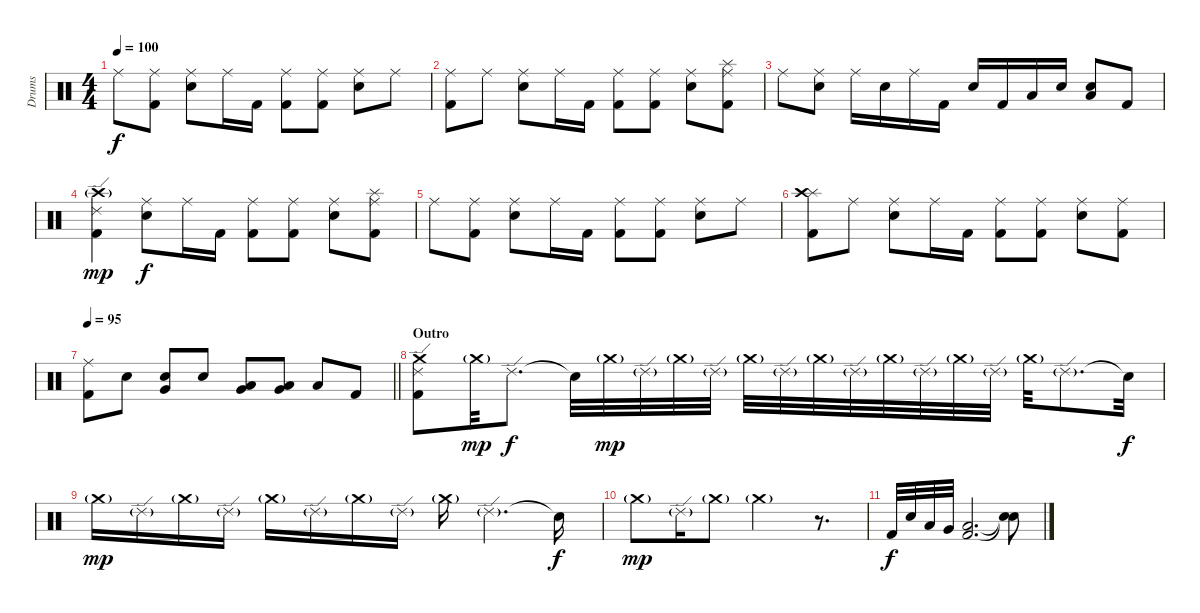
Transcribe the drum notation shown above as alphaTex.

\track ("Drums" "Drums") {instrument percussion}
\staff {score}
\articulation defaults
\ts (4 4)
\tempo 100
\clef neutral
\ks c "Ride (middle)".8{dy f}
("Ride (middle)" "Kick (hit) 2").8 ("Ride (middle)" "Snare (hit) 2").8 "Ride (middle)".16 "Kick (hit) 2".16 ("Ride (middle)" "Kick (hit) 2").8 ("Ride (middle)" "Kick (hit) 2").8 ("Ride (middle)" "Snare (hit) 2").8 "Ride (middle)".8 |
("Ride (middle)" "Kick (hit) 2").8 "Ride (middle)".8 ("Ride (middle)" "Snare (hit) 2").8 "Ride (middle)".16 "Kick (hit) 2".16 ("Ride (middle)" "Kick (hit) 2").8 ("Ride (middle)" "Kick (hit) 2").8 ("Ride (middle)" "Snare (hit) 2").8 ("Ride (middle)" "Kick (hit) 2" "Splash (hit)").8 |
"Ride (middle)".8 ("Ride (middle)" "Snare (hit) 2").8 "Ride (middle)".16 "Snare (hit) 2".16 "Ride (middle)".16 "Kick (hit) 2".16 "Snare (hit) 2".16 "Kick (hit) 2".16 "Low Floor Tom (hit)".16 "Snare (hit) 2".16 ("Snare (hit) 2" "Low Floor Tom (hit)").8 "Kick (hit) 2".8 |
("Ride (edge) 2" "Kick (hit) 2" "Crash high (hit)"{g}).4{dy mp} ("Ride (middle)" "Snare (hit) 2").8{dy f} "Ride (middle)".16 "Kick (hit) 2".16 ("Ride (middle)" "Kick (hit) 2").8 ("Ride (middle)" "Kick (hit) 2").8 ("Ride (middle)" "Snare (hit) 2").8 ("Ride (middle)" "Kick (hit) 2" "Splash (hit)").8 |
"Ride (middle)".8 ("Ride (middle)" "Kick (hit) 2").8 ("Ride (middle)" "Snare (hit) 2").8 "Ride (middle)".16 "Kick (hit) 2".16 ("Ride (middle)" "Kick (hit) 2").8 ("Ride (middle)" "Kick (hit) 2").8 ("Ride (middle)" "Snare (hit) 2").8 "Ride (middle)".8 |
("Splash (hit)" "Kick (hit) 2" "Crash high (hit)").8 "Ride (middle)".8 ("Ride (middle)" "Snare (hit) 2").8 "Ride (middle)".16 "Kick (hit) 2".16 ("Ride (middle)" "Kick (hit) 2").8 ("Ride (middle)" "Kick (hit) 2").8 ("Ride (middle)" "Snare (hit) 2").8 ("Ride (middle)" "Kick (hit) 2").8 |
\tempo 95
\barLineRight lightlight
("Kick (hit) 2" "Ride (middle)").8 "Snare (hit) 2".8 ("Snare (hit) 2" "Very Low Tom (hit)").8 "Snare (hit) 2".8 ("Very Low Tom (hit)" "Low Tom (hit)").8 ("Very Low Tom (hit)" "Low Floor Tom (hit)").8 "Low Floor Tom (hit)".8 "Kick (hit) 2".8 |
\section ("" "Outro")
("Kick (hit) 2" "Ride (edge) 2" "Crash medium (hit)").8 "Crash medium (hit)"{g}.32{dy mp} "Ride (edge) 2".8{d dy f} "Snare (hit)"{t}.32 "Crash medium (hit)"{g}.32{dy mp} "Ride (edge) 2"{g}.32 "Crash medium (hit)"{g}.32 "Ride (edge) 2"{g}.32 "Crash medium (hit)"{g}.32 "Ride (edge) 2"{g}.32 "Crash medium (hit)"{g}.32 "Ride (edge) 2"{g}.32 "Crash medium (hit)"{g}.32 "Ride (edge) 2"{g}.32 "Crash medium (hit)"{g}.32 "Ride (edge) 2"{g}.32 "Crash medium (hit)"{g}.32 "Ride (edge) 2"{g}.8{d} "Snare (hit)"{t}.32{dy f} |
"Crash medium (hit)"{g}.16{dy mp} "Ride (edge) 2"{g}.16 "Crash medium (hit)"{g}.16 "Ride (edge) 2"{g}.16 "Crash medium (hit)"{g}.16 "Ride (edge) 2"{g}.16 "Crash medium (hit)"{g}.16 "Ride (edge) 2"{g}.16 "Crash medium (hit)"{g}.16 "Ride (edge) 2"{g}.4{d} "Snare (hit)"{t}.16{dy f} |
"Crash medium (hit)"{g}.8{dy mp} "Ride (edge) 2"{g}.16 "Crash medium (hit)"{g}.8 "Crash medium (hit)"{g}.2 r.8{d} |
"Kick (hit) 2".32{dy f} "Snare (hit) 2".32 "Low Tom (hit)".32 "Very Low Tom (hit)".32 ("Kick (hit) 2" "Low Floor Tom (hit)").2{d} ("Snare (hit)"{t} "Snare (hit)"{t}).8
